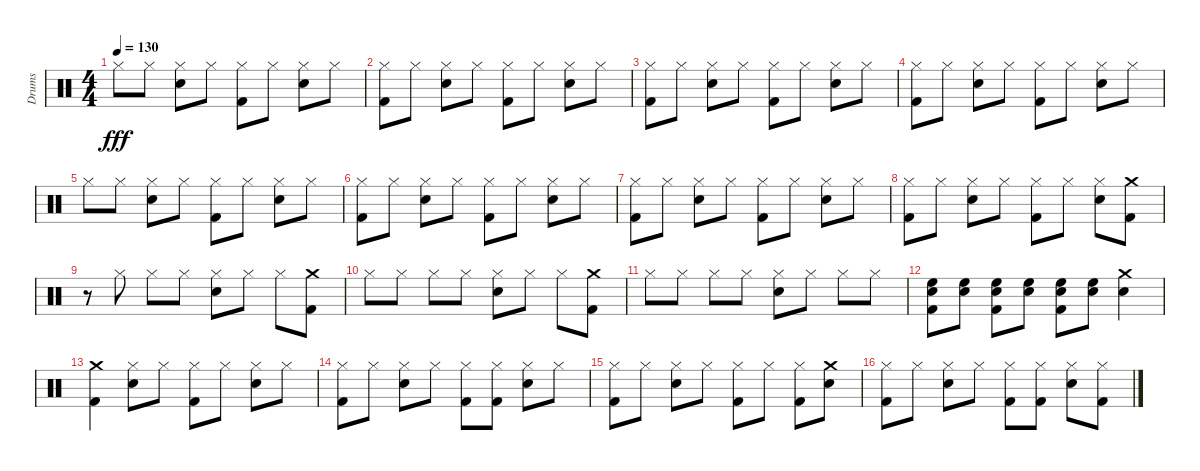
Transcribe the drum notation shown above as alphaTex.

\track ("Drums" "Drums") {instrument percussion}
\staff {score}
\articulation defaults
\ts (4 4)
\tempo 130
\clef neutral
\ks c "Hi-Hat (closed)".8{dy fff} "Hi-Hat (closed)".8
("Snare (hit) 2" "Hi-Hat (closed)").8 "Hi-Hat (closed)".8 ("Kick (hit) 2" "Hi-Hat (closed)").8 "Hi-Hat (closed)".8 ("Snare (hit) 2" "Hi-Hat (closed)").8 "Hi-Hat (closed)".8 |
("Kick (hit) 2" "Hi-Hat (closed)").8 "Hi-Hat (closed)".8 ("Snare (hit) 2" "Hi-Hat (closed)").8 "Hi-Hat (closed)".8 ("Kick (hit) 2" "Hi-Hat (closed)").8 "Hi-Hat (closed)".8 ("Snare (hit) 2" "Hi-Hat (closed)").8 "Hi-Hat (closed)".8 |
("Kick (hit) 2" "Hi-Hat (closed)").8 "Hi-Hat (closed)".8 ("Snare (hit) 2" "Hi-Hat (closed)").8 "Hi-Hat (closed)".8 ("Kick (hit) 2" "Hi-Hat (closed)").8 "Hi-Hat (closed)".8 ("Snare (hit) 2" "Hi-Hat (closed)").8 "Hi-Hat (closed)".8 |
("Kick (hit) 2" "Hi-Hat (closed)").8 "Hi-Hat (closed)".8 ("Snare (hit) 2" "Hi-Hat (closed)").8 "Hi-Hat (closed)".8 ("Kick (hit) 2" "Hi-Hat (closed)").8 "Hi-Hat (closed)".8 ("Snare (hit) 2" "Hi-Hat (closed)").8 "Hi-Hat (closed)".8 |
"Hi-Hat (closed)".8 "Hi-Hat (closed)".8 ("Snare (hit) 2" "Hi-Hat (closed)").8 "Hi-Hat (closed)".8 ("Kick (hit) 2" "Hi-Hat (closed)").8 "Hi-Hat (closed)".8 ("Snare (hit) 2" "Hi-Hat (closed)").8 "Hi-Hat (closed)".8 |
("Kick (hit) 2" "Hi-Hat (closed)").8 "Hi-Hat (closed)".8 ("Snare (hit) 2" "Hi-Hat (closed)").8 "Hi-Hat (closed)".8 ("Kick (hit) 2" "Hi-Hat (closed)").8 "Hi-Hat (closed)".8 ("Snare (hit) 2" "Hi-Hat (closed)").8 "Hi-Hat (closed)".8 |
("Kick (hit) 2" "Hi-Hat (closed)").8 "Hi-Hat (closed)".8 ("Snare (hit) 2" "Hi-Hat (closed)").8 "Hi-Hat (closed)".8 ("Kick (hit) 2" "Hi-Hat (closed)").8 "Hi-Hat (closed)".8 ("Snare (hit) 2" "Hi-Hat (closed)").8 "Hi-Hat (closed)".8 |
("Kick (hit) 2" "Hi-Hat (closed)").8 "Hi-Hat (closed)".8 ("Snare (hit) 2" "Hi-Hat (closed)").8 "Hi-Hat (closed)".8 ("Kick (hit) 2" "Hi-Hat (closed)").8 "Hi-Hat (closed)".8 ("Snare (hit) 2" "Hi-Hat (closed)").8 ("Kick (hit) 2" "Crash medium (hit)").8 |
r.8 "Hi-Hat (closed)".8 "Hi-Hat (closed)".8 "Hi-Hat (closed)".8 ("Snare (hit) 2" "Hi-Hat (closed)").8 "Hi-Hat (closed)".8 "Hi-Hat (closed)".8 ("Kick (hit) 2" "Crash medium (hit)").8 |
"Hi-Hat (closed)".8 "Hi-Hat (closed)".8 "Hi-Hat (closed)".8 "Hi-Hat (closed)".8 ("Snare (hit) 2" "Hi-Hat (closed)").8 "Hi-Hat (closed)".8 "Hi-Hat (closed)".8 ("Crash medium (hit)" "Kick (hit) 2").8 |
"Hi-Hat (closed)".8 "Hi-Hat (closed)".8 "Hi-Hat (closed)".8 "Hi-Hat (closed)".8 ("Snare (hit) 2" "Hi-Hat (closed)").8 "Hi-Hat (closed)".8 "Hi-Hat (closed)".8 "Hi-Hat (closed)".8 |
("Kick (hit) 2" "Snare (hit) 2" "High Floor Tom (hit)").8 ("Snare (hit) 2" "High Floor Tom (hit)").8 ("Kick (hit) 2" "Snare (hit) 2" "High Floor Tom (hit)").8 ("Snare (hit) 2" "High Floor Tom (hit)").8 ("Kick (hit) 2" "Snare (hit) 2" "High Floor Tom (hit)").8 ("Snare (hit) 2" "High Floor Tom (hit)").8 ("Crash medium (hit)" "Snare (hit) 2").4 |
("Kick (hit) 2" "Crash medium (hit)").4 ("Snare (hit) 2" "Hi-Hat (closed)").8 "Hi-Hat (closed)".8 ("Hi-Hat (closed)" "Kick (hit) 2").8 "Hi-Hat (closed)".8 ("Snare (hit) 2" "Hi-Hat (closed)").8 "Hi-Hat (closed)".8 |
("Hi-Hat (closed)" "Kick (hit) 2").8 "Hi-Hat (closed)".8 ("Snare (hit) 2" "Hi-Hat (closed)").8 "Hi-Hat (closed)".8 ("Kick (hit) 2" "Hi-Hat (closed)").8 ("Kick (hit) 2" "Hi-Hat (closed)").8 ("Snare (hit) 2" "Hi-Hat (closed)").8 "Hi-Hat (closed)".8 |
("Hi-Hat (closed)" "Kick (hit) 2").8 "Hi-Hat (closed)".8 ("Snare (hit) 2" "Hi-Hat (closed)").8 "Hi-Hat (closed)".8 ("Hi-Hat (closed)" "Kick (hit) 2").8 "Hi-Hat (closed)".8 ("Hi-Hat (closed)" "Kick (hit) 2").8 ("Crash medium (hit)" "Snare (hit) 2").8 |
("Hi-Hat (closed)" "Kick (hit) 2").8 "Hi-Hat (closed)".8 ("Snare (hit) 2" "Hi-Hat (closed)").8 "Hi-Hat (closed)".8 ("Kick (hit) 2" "Hi-Hat (closed)").8 ("Kick (hit) 2" "Hi-Hat (closed)").8 ("Snare (hit) 2" "Hi-Hat (closed)").8 ("Kick (hit) 2" "Hi-Hat (closed)").8
